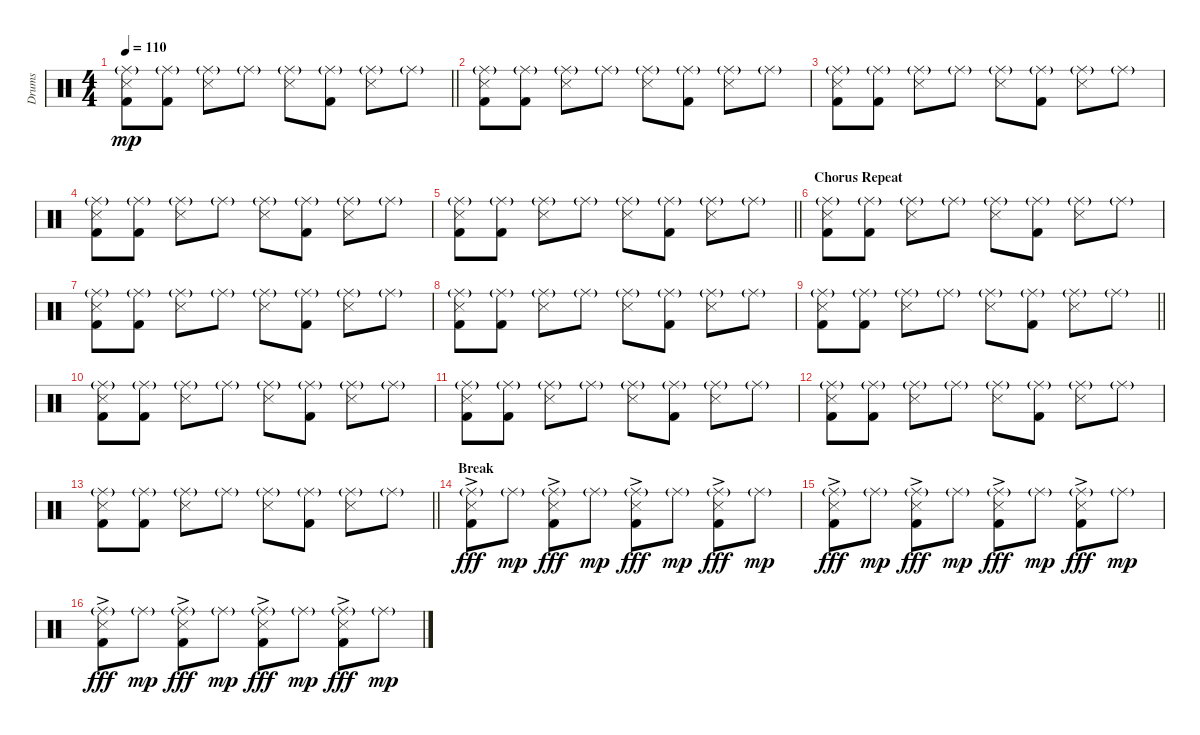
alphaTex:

\track ("Drums" "Drums") {instrument percussion}
\staff {score}
\articulation defaults
\ts (4 4)
\tempo 110
\clef neutral
\barLineRight lightlight
\ks c
("Snare (side stick) 3" "Ride (middle)"{g} "Kick (hit) 2").8{dy mp} ("Ride (middle)"{g} "Kick (hit) 2").8 ("Snare (side stick) 3" "Ride (middle)"{g}).8 "Ride (middle)"{g}.8 ("Snare (side stick) 3" "Ride (middle)"{g}).8 ("Ride (middle)"{g} "Kick (hit) 2").8 ("Snare (side stick) 3" "Ride (middle)"{g}).8 "Ride (middle)"{g}.8 |
("Snare (side stick) 3" "Ride (middle)"{g} "Kick (hit) 2").8 ("Ride (middle)"{g} "Kick (hit) 2").8 ("Snare (side stick) 3" "Ride (middle)"{g}).8 "Ride (middle)"{g}.8 ("Snare (side stick) 3" "Ride (middle)"{g}).8 ("Ride (middle)"{g} "Kick (hit) 2").8 ("Snare (side stick) 3" "Ride (middle)"{g}).8 "Ride (middle)"{g}.8 |
("Snare (side stick) 3" "Ride (middle)"{g} "Kick (hit) 2").8 ("Ride (middle)"{g} "Kick (hit) 2").8 ("Snare (side stick) 3" "Ride (middle)"{g}).8 "Ride (middle)"{g}.8 ("Snare (side stick) 3" "Ride (middle)"{g}).8 ("Ride (middle)"{g} "Kick (hit) 2").8 ("Snare (side stick) 3" "Ride (middle)"{g}).8 "Ride (middle)"{g}.8 |
("Snare (side stick) 3" "Ride (middle)"{g} "Kick (hit) 2").8 ("Ride (middle)"{g} "Kick (hit) 2").8 ("Snare (side stick) 3" "Ride (middle)"{g}).8 "Ride (middle)"{g}.8 ("Snare (side stick) 3" "Ride (middle)"{g}).8 ("Ride (middle)"{g} "Kick (hit) 2").8 ("Snare (side stick) 3" "Ride (middle)"{g}).8 "Ride (middle)"{g}.8 |
\barLineRight lightlight
("Snare (side stick) 3" "Ride (middle)"{g} "Kick (hit) 2").8 ("Ride (middle)"{g} "Kick (hit) 2").8 ("Snare (side stick) 3" "Ride (middle)"{g}).8 "Ride (middle)"{g}.8 ("Snare (side stick) 3" "Ride (middle)"{g}).8 ("Ride (middle)"{g} "Kick (hit) 2").8 ("Snare (side stick) 3" "Ride (middle)"{g}).8 "Ride (middle)"{g}.8 |
\section ("" "Chorus Repeat")
("Snare (side stick) 3" "Ride (middle)"{g} "Kick (hit) 2").8 ("Ride (middle)"{g} "Kick (hit) 2").8 ("Snare (side stick) 3" "Ride (middle)"{g}).8 "Ride (middle)"{g}.8 ("Snare (side stick) 3" "Ride (middle)"{g}).8 ("Ride (middle)"{g} "Kick (hit) 2").8 ("Snare (side stick) 3" "Ride (middle)"{g}).8 "Ride (middle)"{g}.8 |
("Snare (side stick) 3" "Ride (middle)"{g} "Kick (hit) 2").8 ("Ride (middle)"{g} "Kick (hit) 2").8 ("Snare (side stick) 3" "Ride (middle)"{g}).8 "Ride (middle)"{g}.8 ("Snare (side stick) 3" "Ride (middle)"{g}).8 ("Ride (middle)"{g} "Kick (hit) 2").8 ("Snare (side stick) 3" "Ride (middle)"{g}).8 "Ride (middle)"{g}.8 |
("Snare (side stick) 3" "Ride (middle)"{g} "Kick (hit) 2").8 ("Ride (middle)"{g} "Kick (hit) 2").8 ("Snare (side stick) 3" "Ride (middle)"{g}).8 "Ride (middle)"{g}.8 ("Snare (side stick) 3" "Ride (middle)"{g}).8 ("Ride (middle)"{g} "Kick (hit) 2").8 ("Snare (side stick) 3" "Ride (middle)"{g}).8 "Ride (middle)"{g}.8 |
\barLineRight lightlight
("Snare (side stick) 3" "Ride (middle)"{g} "Kick (hit) 2").8 ("Ride (middle)"{g} "Kick (hit) 2").8 ("Snare (side stick) 3" "Ride (middle)"{g}).8 "Ride (middle)"{g}.8 ("Snare (side stick) 3" "Ride (middle)"{g}).8 ("Ride (middle)"{g} "Kick (hit) 2").8 ("Snare (side stick) 3" "Ride (middle)"{g}).8 "Ride (middle)"{g}.8 |
("Snare (side stick) 3" "Ride (middle)"{g} "Kick (hit) 2").8 ("Ride (middle)"{g} "Kick (hit) 2").8 ("Snare (side stick) 3" "Ride (middle)"{g}).8 "Ride (middle)"{g}.8 ("Snare (side stick) 3" "Ride (middle)"{g}).8 ("Ride (middle)"{g} "Kick (hit) 2").8 ("Snare (side stick) 3" "Ride (middle)"{g}).8 "Ride (middle)"{g}.8 |
("Snare (side stick) 3" "Ride (middle)"{g} "Kick (hit) 2").8 ("Ride (middle)"{g} "Kick (hit) 2").8 ("Snare (side stick) 3" "Ride (middle)"{g}).8 "Ride (middle)"{g}.8 ("Snare (side stick) 3" "Ride (middle)"{g}).8 ("Ride (middle)"{g} "Kick (hit) 2").8 ("Snare (side stick) 3" "Ride (middle)"{g}).8 "Ride (middle)"{g}.8 |
("Snare (side stick) 3" "Ride (middle)"{g} "Kick (hit) 2").8 ("Ride (middle)"{g} "Kick (hit) 2").8 ("Snare (side stick) 3" "Ride (middle)"{g}).8 "Ride (middle)"{g}.8 ("Snare (side stick) 3" "Ride (middle)"{g}).8 ("Ride (middle)"{g} "Kick (hit) 2").8 ("Snare (side stick) 3" "Ride (middle)"{g}).8 "Ride (middle)"{g}.8 |
\barLineRight lightlight
("Snare (side stick) 3" "Ride (middle)"{g} "Kick (hit) 2").8 ("Ride (middle)"{g} "Kick (hit) 2").8 ("Snare (side stick) 3" "Ride (middle)"{g}).8 "Ride (middle)"{g}.8 ("Snare (side stick) 3" "Ride (middle)"{g}).8 ("Ride (middle)"{g} "Kick (hit) 2").8 ("Snare (side stick) 3" "Ride (middle)"{g}).8 "Ride (middle)"{g}.8 |
\section ("" "Break")
("Snare (side stick) 3" "Ride (middle)"{g} "Kick (hit) 2"{ac}).8{dy fff} "Ride (middle)"{g}.8{dy mp} ("Snare (side stick) 3" "Ride (middle)"{g} "Kick (hit) 2"{ac}).8{dy fff} "Ride (middle)"{g}.8{dy mp} ("Snare (side stick) 3" "Ride (middle)"{g} "Kick (hit) 2"{ac}).8{dy fff} "Ride (middle)"{g}.8{dy mp} ("Snare (side stick) 3" "Ride (middle)"{g} "Kick (hit) 2"{ac}).8{dy fff} "Ride (middle)"{g}.8{dy mp} |
("Snare (side stick) 3" "Ride (middle)"{g} "Kick (hit) 2"{ac}).8{dy fff} "Ride (middle)"{g}.8{dy mp} ("Snare (side stick) 3" "Ride (middle)"{g} "Kick (hit) 2"{ac}).8{dy fff} "Ride (middle)"{g}.8{dy mp} ("Snare (side stick) 3" "Ride (middle)"{g} "Kick (hit) 2"{ac}).8{dy fff} "Ride (middle)"{g}.8{dy mp} ("Snare (side stick) 3" "Ride (middle)"{g} "Kick (hit) 2"{ac}).8{dy fff} "Ride (middle)"{g}.8{dy mp} |
("Snare (side stick) 3" "Ride (middle)"{g} "Kick (hit) 2"{ac}).8{dy fff} "Ride (middle)"{g}.8{dy mp} ("Snare (side stick) 3" "Ride (middle)"{g} "Kick (hit) 2"{ac}).8{dy fff} "Ride (middle)"{g}.8{dy mp} ("Snare (side stick) 3" "Ride (middle)"{g} "Kick (hit) 2"{ac}).8{dy fff} "Ride (middle)"{g}.8{dy mp} ("Snare (side stick) 3" "Ride (middle)"{g} "Kick (hit) 2"{ac}).8{dy fff} "Ride (middle)"{g}.8{dy mp}
